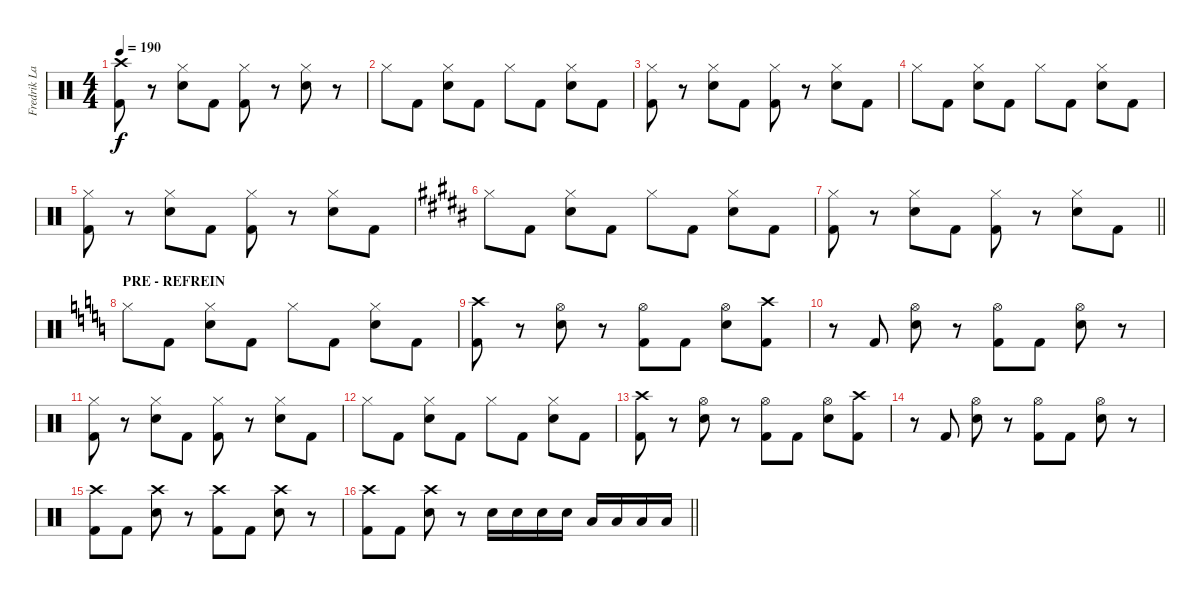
\track ("Fredrik Larson" "Fredrik La") {instrument percussion}
\staff {score}
\articulation defaults
\ts (4 4)
\tempo 190
\clef neutral
\ks c
("Crash high (hit)" "Kick (hit) 2").8{dy f} r.8 ("Hi-Hat (closed)" "Snare (hit) 2").8 "Kick (hit) 2".8 ("Hi-Hat (closed)" "Kick (hit) 2").8 r.8 ("Hi-Hat (closed)" "Snare (hit) 2").8 r.8 |
"Hi-Hat (closed)".8 "Kick (hit) 2".8 ("Hi-Hat (closed)" "Snare (hit) 2").8 "Kick (hit) 2".8 "Hi-Hat (closed)".8 "Kick (hit) 2".8 ("Hi-Hat (closed)" "Snare (hit) 2").8 "Kick (hit) 2".8 |
("Hi-Hat (closed)" "Kick (hit) 2").8 r.8 ("Hi-Hat (closed)" "Snare (hit) 2").8 "Kick (hit) 2".8 ("Hi-Hat (closed)" "Kick (hit) 2").8 r.8 ("Hi-Hat (closed)" "Snare (hit) 2").8 "Kick (hit) 2".8 |
"Hi-Hat (closed)".8 "Kick (hit) 2".8 ("Hi-Hat (closed)" "Snare (hit) 2").8 "Kick (hit) 2".8 "Hi-Hat (closed)".8 "Kick (hit) 2".8 ("Hi-Hat (closed)" "Snare (hit) 2").8 "Kick (hit) 2".8 |
("Hi-Hat (closed)" "Kick (hit) 2").8 r.8 ("Hi-Hat (closed)" "Snare (hit) 2").8 "Kick (hit) 2".8 ("Hi-Hat (closed)" "Kick (hit) 2").8 r.8 ("Hi-Hat (closed)" "Snare (hit) 2").8 "Kick (hit) 2".8 |
\ks b "Hi-Hat (closed)".8 "Kick (hit) 2".8
("Hi-Hat (closed)" "Snare (hit) 2").8 "Kick (hit) 2".8 "Hi-Hat (closed)".8 "Kick (hit) 2".8 ("Hi-Hat (closed)" "Snare (hit) 2").8 "Kick (hit) 2".8 |
\barLineRight lightlight
("Hi-Hat (closed)" "Kick (hit) 2").8 r.8 ("Hi-Hat (closed)" "Snare (hit) 2").8 "Kick (hit) 2".8 ("Hi-Hat (closed)" "Kick (hit) 2").8 r.8 ("Hi-Hat (closed)" "Snare (hit) 2").8 "Kick (hit) 2".8 |
\section ("" "PRE - REFREIN")
\ks c "Hi-Hat (closed)".8 "Kick (hit) 2".8
("Hi-Hat (closed)" "Snare (hit) 2").8 "Kick (hit) 2".8 "Hi-Hat (closed)".8 "Kick (hit) 2".8 ("Hi-Hat (closed)" "Snare (hit) 2").8 "Kick (hit) 2".8 |
("Crash high (hit)" "Kick (hit) 2").8 r.8 ("Hi-Hat (open)" "Snare (hit) 2").8 r.8 ("Hi-Hat (open)" "Kick (hit) 2").8 "Kick (hit) 2".8 ("Hi-Hat (open)" "Snare (hit) 2").8 ("Crash high (hit)" "Kick (hit) 2").8 |
r.8 "Kick (hit) 2".8 ("Hi-Hat (open)" "Snare (hit) 2").8 r.8 ("Hi-Hat (open)" "Kick (hit) 2").8 "Kick (hit) 2".8 ("Hi-Hat (open)" "Snare (hit) 2").8 r.8 |
("Hi-Hat (closed)" "Kick (hit) 2").8 r.8 ("Hi-Hat (closed)" "Snare (hit) 2").8 "Kick (hit) 2".8 ("Hi-Hat (closed)" "Kick (hit) 2").8 r.8 ("Hi-Hat (closed)" "Snare (hit) 2").8 "Kick (hit) 2".8 |
"Hi-Hat (closed)".8 "Kick (hit) 2".8 ("Hi-Hat (closed)" "Snare (hit) 2").8 "Kick (hit) 2".8 "Hi-Hat (closed)".8 "Kick (hit) 2".8 ("Hi-Hat (closed)" "Snare (hit) 2").8 "Kick (hit) 2".8 |
("Crash high (hit)" "Kick (hit) 2").8 r.8 ("Hi-Hat (open)" "Snare (hit) 2").8 r.8 ("Hi-Hat (open)" "Kick (hit) 2").8 "Kick (hit) 2".8 ("Hi-Hat (open)" "Snare (hit) 2").8 ("Crash high (hit)" "Kick (hit) 2").8 |
r.8 "Kick (hit) 2".8 ("Hi-Hat (open)" "Snare (hit) 2").8 r.8 ("Hi-Hat (open)" "Kick (hit) 2").8 "Kick (hit) 2".8 ("Hi-Hat (open)" "Snare (hit) 2").8 r.8 |
("Crash high (hit)" "Kick (hit) 2").8 "Kick (hit) 2".8 ("Crash high (hit)" "Snare (hit) 2").8 r.8 ("Crash high (hit)" "Kick (hit) 2").8 "Kick (hit) 2".8 ("Crash high (hit)" "Snare (hit) 2").8 r.8 |
\barLineRight lightlight
("Crash high (hit)" "Kick (hit) 2").8 "Kick (hit) 2".8 ("Crash high (hit)" "Snare (hit) 2").8 r.8 "Snare (hit) 2".16 "Snare (hit) 2".16 "Snare (hit) 2".16 "Snare (hit) 2".16 "Low Tom (hit)".16 "Low Tom (hit)".16 "Low Floor Tom (hit)".16 "Low Floor Tom (hit)".16
